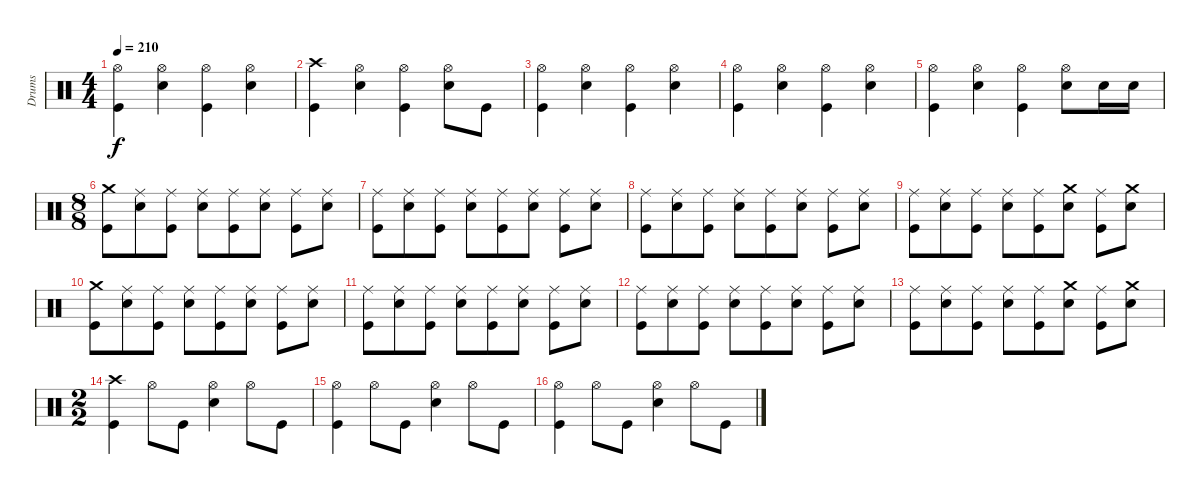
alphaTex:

\track ("Drums" "Drums") {instrument percussion}
\staff {score}
\articulation defaults
\ts (4 4)
\tempo 210
\clef neutral
\ks c
("Hi-Hat (open)" "Kick (hit)").4{dy f} ("Hi-Hat (open)" "Electric Snare (hit)").4 ("Hi-Hat (open)" "Kick (hit)").4 ("Hi-Hat (open)" "Electric Snare (hit)").4 |
("Crash high (hit)" "Kick (hit)").4 ("Hi-Hat (open)" "Electric Snare (hit)").4 ("Hi-Hat (open)" "Kick (hit)").4 ("Hi-Hat (open)" "Electric Snare (hit)").8 "Kick (hit)".8 |
("Hi-Hat (open)" "Kick (hit)").4 ("Hi-Hat (open)" "Electric Snare (hit)").4 ("Hi-Hat (open)" "Kick (hit)").4 ("Hi-Hat (open)" "Electric Snare (hit)").4 |
("Hi-Hat (open)" "Kick (hit)").4 ("Hi-Hat (open)" "Electric Snare (hit)").4 ("Hi-Hat (open)" "Kick (hit)").4 ("Hi-Hat (open)" "Electric Snare (hit)").4 |
("Hi-Hat (open)" "Kick (hit)").4 ("Hi-Hat (open)" "Electric Snare (hit)").4 ("Hi-Hat (open)" "Kick (hit)").4 ("Hi-Hat (open)" "Electric Snare (hit)").8 "Electric Snare (hit)".16 "Electric Snare (hit)".16 |
\ts (8 8)
("Crash medium (hit)" "Kick (hit)").8 ("Ride (middle)" "Electric Snare (hit)").8 ("Ride (middle)" "Kick (hit)").8 ("Ride (middle)" "Electric Snare (hit)").8 ("Ride (middle)" "Kick (hit)").8 ("Ride (middle)" "Electric Snare (hit)").8 ("Ride (middle)" "Kick (hit)").8 ("Ride (middle)" "Electric Snare (hit)").8 |
("Ride (middle)" "Kick (hit)").8 ("Ride (middle)" "Electric Snare (hit)").8 ("Ride (middle)" "Kick (hit)").8 ("Ride (middle)" "Electric Snare (hit)").8 ("Ride (middle)" "Kick (hit)").8 ("Ride (middle)" "Electric Snare (hit)").8 ("Ride (middle)" "Kick (hit)").8 ("Ride (middle)" "Electric Snare (hit)").8 |
("Ride (middle)" "Kick (hit)").8 ("Ride (middle)" "Electric Snare (hit)").8 ("Ride (middle)" "Kick (hit)").8 ("Ride (middle)" "Electric Snare (hit)").8 ("Ride (middle)" "Kick (hit)").8 ("Ride (middle)" "Electric Snare (hit)").8 ("Ride (middle)" "Kick (hit)").8 ("Ride (middle)" "Electric Snare (hit)").8 |
("Ride (middle)" "Kick (hit)").8 ("Ride (middle)" "Electric Snare (hit)").8 ("Ride (middle)" "Kick (hit)").8 ("Ride (middle)" "Electric Snare (hit)").8 ("Ride (middle)" "Kick (hit)").8 ("Crash medium (hit)" "Electric Snare (hit)").8 ("Ride (middle)" "Kick (hit)").8 ("Crash medium (hit)" "Electric Snare (hit)").8 |
("Crash medium (hit)" "Kick (hit)").8 ("Ride (middle)" "Electric Snare (hit)").8 ("Ride (middle)" "Kick (hit)").8 ("Ride (middle)" "Electric Snare (hit)").8 ("Ride (middle)" "Kick (hit)").8 ("Ride (middle)" "Electric Snare (hit)").8 ("Ride (middle)" "Kick (hit)").8 ("Ride (middle)" "Electric Snare (hit)").8 |
("Ride (middle)" "Kick (hit)").8 ("Ride (middle)" "Electric Snare (hit)").8 ("Ride (middle)" "Kick (hit)").8 ("Ride (middle)" "Electric Snare (hit)").8 ("Ride (middle)" "Kick (hit)").8 ("Ride (middle)" "Electric Snare (hit)").8 ("Ride (middle)" "Kick (hit)").8 ("Ride (middle)" "Electric Snare (hit)").8 |
("Ride (middle)" "Kick (hit)").8 ("Ride (middle)" "Electric Snare (hit)").8 ("Ride (middle)" "Kick (hit)").8 ("Ride (middle)" "Electric Snare (hit)").8 ("Ride (middle)" "Kick (hit)").8 ("Ride (middle)" "Electric Snare (hit)").8 ("Ride (middle)" "Kick (hit)").8 ("Ride (middle)" "Electric Snare (hit)").8 |
("Ride (middle)" "Kick (hit)").8 ("Ride (middle)" "Electric Snare (hit)").8 ("Ride (middle)" "Kick (hit)").8 ("Ride (middle)" "Electric Snare (hit)").8 ("Ride (middle)" "Kick (hit)").8 ("Crash medium (hit)" "Electric Snare (hit)").8 ("Ride (middle)" "Kick (hit)").8 ("Crash medium (hit)" "Electric Snare (hit)").8 |
\ts (2 2)
("Crash high (hit)" "Kick (hit)").4 "Hi-Hat (open)".8 "Kick (hit)".8 ("Hi-Hat (open)" "Electric Snare (hit)").4 "Hi-Hat (open)".8 "Kick (hit)".8 |
("Hi-Hat (open)" "Kick (hit)").4 "Hi-Hat (open)".8 "Kick (hit)".8 ("Hi-Hat (open)" "Electric Snare (hit)").4 "Hi-Hat (open)".8 "Kick (hit)".8 |
("Hi-Hat (open)" "Kick (hit)").4 "Hi-Hat (open)".8 "Kick (hit)".8 ("Hi-Hat (open)" "Electric Snare (hit)").4 "Hi-Hat (open)".8 "Kick (hit)".8
